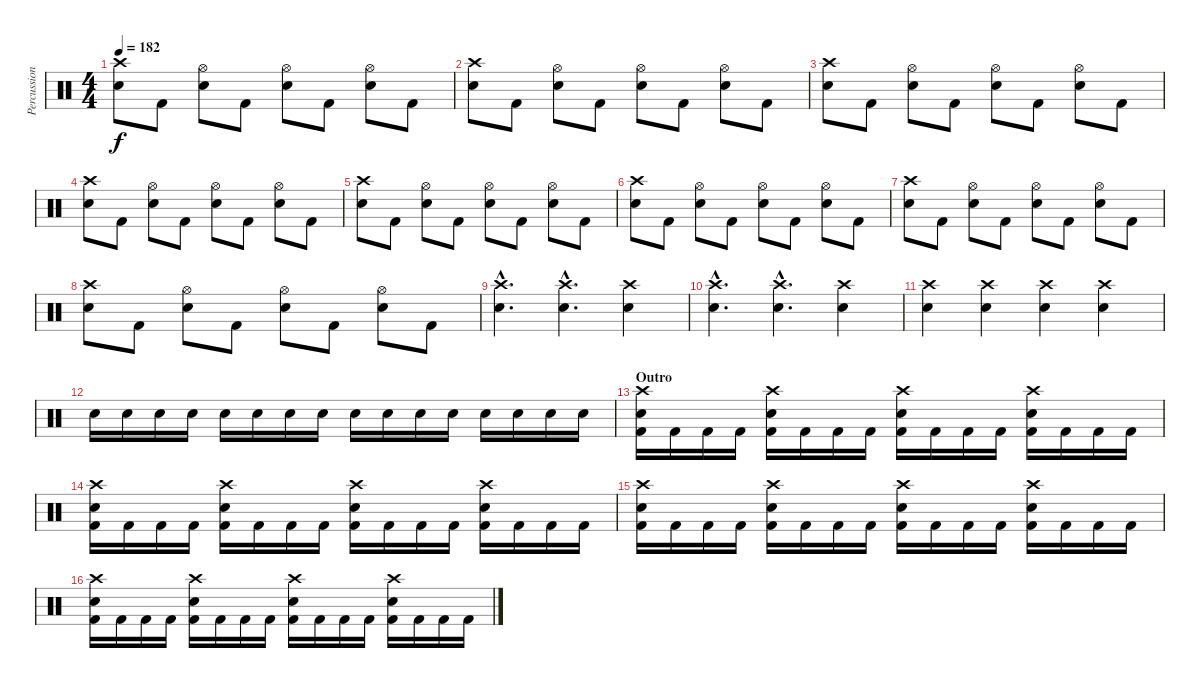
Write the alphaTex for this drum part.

\track ("Percussion" "Percussion") {instrument percussion}
\staff {score}
\articulation defaults
\ts (4 4)
\tempo 182
\clef neutral
\ks c
("Crash high (hit)" "Snare (hit) 2").8{dy f} "Kick (hit) 2".8 ("Hi-Hat (open)" "Snare (hit) 2").8 "Kick (hit) 2".8 ("Hi-Hat (open)" "Snare (hit) 2").8 "Kick (hit) 2".8 ("Hi-Hat (open)" "Snare (hit) 2").8 "Kick (hit) 2".8 |
("Crash high (hit)" "Snare (hit) 2").8 "Kick (hit) 2".8 ("Hi-Hat (open)" "Snare (hit) 2").8 "Kick (hit) 2".8 ("Hi-Hat (open)" "Snare (hit) 2").8 "Kick (hit) 2".8 ("Hi-Hat (open)" "Snare (hit) 2").8 "Kick (hit) 2".8 |
("Crash high (hit)" "Snare (hit) 2").8 "Kick (hit) 2".8 ("Hi-Hat (open)" "Snare (hit) 2").8 "Kick (hit) 2".8 ("Hi-Hat (open)" "Snare (hit) 2").8 "Kick (hit) 2".8 ("Hi-Hat (open)" "Snare (hit) 2").8 "Kick (hit) 2".8 |
("Crash high (hit)" "Snare (hit) 2").8 "Kick (hit) 2".8 ("Hi-Hat (open)" "Snare (hit) 2").8 "Kick (hit) 2".8 ("Hi-Hat (open)" "Snare (hit) 2").8 "Kick (hit) 2".8 ("Hi-Hat (open)" "Snare (hit) 2").8 "Kick (hit) 2".8 |
("Crash high (hit)" "Snare (hit) 2").8 "Kick (hit) 2".8 ("Hi-Hat (open)" "Snare (hit) 2").8 "Kick (hit) 2".8 ("Hi-Hat (open)" "Snare (hit) 2").8 "Kick (hit) 2".8 ("Hi-Hat (open)" "Snare (hit) 2").8 "Kick (hit) 2".8 |
("Crash high (hit)" "Snare (hit) 2").8 "Kick (hit) 2".8 ("Hi-Hat (open)" "Snare (hit) 2").8 "Kick (hit) 2".8 ("Hi-Hat (open)" "Snare (hit) 2").8 "Kick (hit) 2".8 ("Hi-Hat (open)" "Snare (hit) 2").8 "Kick (hit) 2".8 |
("Crash high (hit)" "Snare (hit) 2").8 "Kick (hit) 2".8 ("Hi-Hat (open)" "Snare (hit) 2").8 "Kick (hit) 2".8 ("Hi-Hat (open)" "Snare (hit) 2").8 "Kick (hit) 2".8 ("Hi-Hat (open)" "Snare (hit) 2").8 "Kick (hit) 2".8 |
("Crash high (hit)" "Snare (hit) 2").8 "Kick (hit) 2".8 ("Hi-Hat (open)" "Snare (hit) 2").8 "Kick (hit) 2".8 ("Hi-Hat (open)" "Snare (hit) 2").8 "Kick (hit) 2".8 ("Hi-Hat (open)" "Snare (hit) 2").8 "Kick (hit) 2".8 |
("Crash high (hit)"{hac} "Snare (hit) 2"{hac}).4{d} ("Crash high (hit)"{hac} "Snare (hit) 2"{hac}).4{d} ("Crash high (hit)" "Snare (hit) 2").4 |
("Crash high (hit)"{hac} "Snare (hit) 2"{hac}).4{d} ("Crash high (hit)"{hac} "Snare (hit) 2"{hac}).4{d} ("Crash high (hit)" "Snare (hit) 2").4 |
("Crash high (hit)" "Snare (hit) 2").4 ("Crash high (hit)" "Snare (hit) 2").4 ("Crash high (hit)" "Snare (hit) 2").4 ("Crash high (hit)" "Snare (hit) 2").4 |
"Snare (hit) 2".16 "Snare (hit) 2".16 "Snare (hit) 2".16 "Snare (hit) 2".16 "Snare (hit) 2".16 "Snare (hit) 2".16 "Snare (hit) 2".16 "Snare (hit) 2".16 "Snare (hit) 2".16 "Snare (hit) 2".16 "Snare (hit) 2".16 "Snare (hit) 2".16 "Snare (hit) 2".16 "Snare (hit) 2".16 "Snare (hit) 2".16 "Snare (hit) 2".16 |
\section ("" "Outro")
("Crash high (hit)" "Snare (hit) 2" "Kick (hit) 2").16 "Kick (hit) 2".16 "Kick (hit) 2".16 "Kick (hit) 2".16 ("Crash high (hit)" "Snare (hit) 2" "Kick (hit) 2").16 "Kick (hit) 2".16 "Kick (hit) 2".16 "Kick (hit) 2".16 ("Crash high (hit)" "Snare (hit) 2" "Kick (hit) 2").16 "Kick (hit) 2".16 "Kick (hit) 2".16 "Kick (hit) 2".16 ("Crash high (hit)" "Snare (hit) 2" "Kick (hit) 2").16 "Kick (hit) 2".16 "Kick (hit) 2".16 "Kick (hit) 2".16 |
("Crash high (hit)" "Snare (hit) 2" "Kick (hit) 2").16 "Kick (hit) 2".16 "Kick (hit) 2".16 "Kick (hit) 2".16 ("Crash high (hit)" "Snare (hit) 2" "Kick (hit) 2").16 "Kick (hit) 2".16 "Kick (hit) 2".16 "Kick (hit) 2".16 ("Crash high (hit)" "Snare (hit) 2" "Kick (hit) 2").16 "Kick (hit) 2".16 "Kick (hit) 2".16 "Kick (hit) 2".16 ("Crash high (hit)" "Snare (hit) 2" "Kick (hit) 2").16 "Kick (hit) 2".16 "Kick (hit) 2".16 "Kick (hit) 2".16 |
("Crash high (hit)" "Snare (hit) 2" "Kick (hit) 2").16 "Kick (hit) 2".16 "Kick (hit) 2".16 "Kick (hit) 2".16 ("Crash high (hit)" "Snare (hit) 2" "Kick (hit) 2").16 "Kick (hit) 2".16 "Kick (hit) 2".16 "Kick (hit) 2".16 ("Crash high (hit)" "Snare (hit) 2" "Kick (hit) 2").16 "Kick (hit) 2".16 "Kick (hit) 2".16 "Kick (hit) 2".16 ("Crash high (hit)" "Snare (hit) 2" "Kick (hit) 2").16 "Kick (hit) 2".16 "Kick (hit) 2".16 "Kick (hit) 2".16 |
("Crash high (hit)" "Snare (hit) 2" "Kick (hit) 2").16 "Kick (hit) 2".16 "Kick (hit) 2".16 "Kick (hit) 2".16 ("Crash high (hit)" "Snare (hit) 2" "Kick (hit) 2").16 "Kick (hit) 2".16 "Kick (hit) 2".16 "Kick (hit) 2".16 ("Crash high (hit)" "Snare (hit) 2" "Kick (hit) 2").16 "Kick (hit) 2".16 "Kick (hit) 2".16 "Kick (hit) 2".16 ("Crash high (hit)" "Snare (hit) 2" "Kick (hit) 2").16 "Kick (hit) 2".16 "Kick (hit) 2".16 "Kick (hit) 2".16
